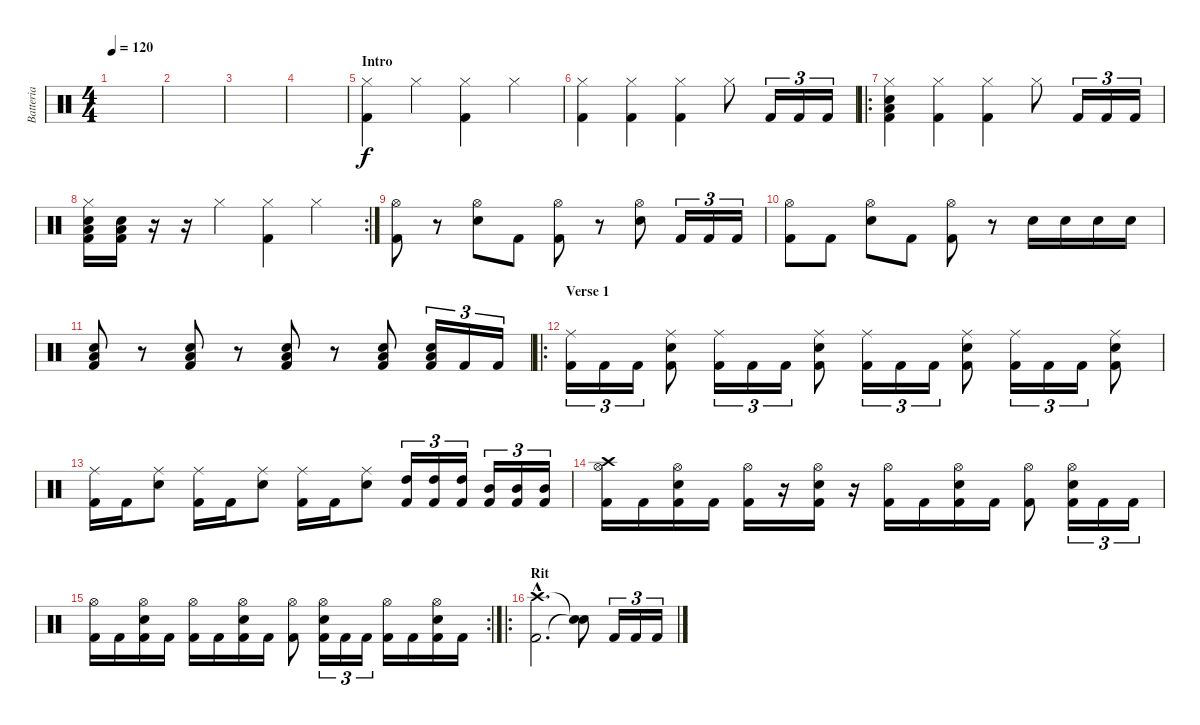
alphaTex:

\track ("Batteria" "Batteria") {instrument percussion}
\staff {score}
\articulation defaults
\ts (4 4)
\tempo 120
\clef neutral
\ks c
|
|
|
|
\section ("" "Intro")
("Hi-Hat (closed)" "Kick (hit) 2").4 "Hi-Hat (closed)".4 ("Hi-Hat (closed)" "Kick (hit) 2").4 "Hi-Hat (closed)".4 |
("Hi-Hat (closed)" "Kick (hit) 2").4 ("Hi-Hat (closed)" "Kick (hit) 2").4 ("Hi-Hat (closed)" "Kick (hit) 2").4 "Hi-Hat (closed)".8 "Kick (hit) 2".16{tu (3 2)} "Kick (hit) 2".16{tu (3 2)} "Kick (hit) 2".16{tu (3 2)} |
\ro
("Hi-Hat (closed)" "Low Floor Tom (hit)" "Snare (hit) 2" "Kick (hit) 2").4 ("Hi-Hat (closed)" "Kick (hit) 2").4 ("Hi-Hat (closed)" "Kick (hit) 2").4 "Hi-Hat (closed)".8 "Kick (hit) 2".16{tu (3 2)} "Kick (hit) 2".16{tu (3 2)} "Kick (hit) 2".16{tu (3 2)} |
\rc 2
("Hi-Hat (closed)" "Low Floor Tom (hit)" "Snare (hit) 2" "Kick (hit) 2").16 ("Low Floor Tom (hit)" "Snare (hit) 2" "Kick (hit) 2").16 r.16 r.16 "Hi-Hat (closed)".4 ("Hi-Hat (closed)" "Kick (hit) 2").4 "Hi-Hat (closed)".4 |
("Hi-Hat (open)" "Kick (hit) 2").8 r.8 ("Hi-Hat (open)" "Snare (hit) 2").8 "Kick (hit) 2".8 ("Hi-Hat (open)" "Kick (hit) 2").8 r.8 ("Hi-Hat (open)" "Snare (hit) 2").8 "Kick (hit) 2".16{tu (3 2)} "Kick (hit) 2".16{tu (3 2)} "Kick (hit) 2".16{tu (3 2)} |
("Hi-Hat (open)" "Kick (hit) 2").8 "Kick (hit) 2".8 ("Hi-Hat (open)" "Snare (hit) 2").8 "Kick (hit) 2".8 ("Hi-Hat (open)" "Kick (hit) 2").8 r.8 "Snare (hit) 2".16 "Snare (hit) 2".16 "Snare (hit) 2".16 "Snare (hit) 2".16 |
("Low Floor Tom (hit)" "Snare (hit) 2" "Kick (hit) 2").8 r.8 ("Low Floor Tom (hit)" "Snare (hit) 2" "Kick (hit) 2").8 r.8 ("Low Floor Tom (hit)" "Snare (hit) 2" "Kick (hit) 2").8 r.8 ("Low Floor Tom (hit)" "Snare (hit) 2" "Kick (hit) 2").8 ("Low Floor Tom (hit)" "Snare (hit) 2" "Kick (hit) 2").16{tu (3 2)} "Kick (hit) 2".16{tu (3 2)} "Kick (hit) 2".16{tu (3 2)} |
\ro
\section ("" "Verse 1")
("Ride (middle)" "Kick (hit) 2").16{tu (3 2)} "Kick (hit) 2".16{tu (3 2)} "Kick (hit) 2".16{tu (3 2)} ("Ride (middle)" "Snare (hit) 2" "Kick (hit) 2").8 ("Ride (middle)" "Kick (hit) 2").16{tu (3 2)} "Kick (hit) 2".16{tu (3 2)} "Kick (hit) 2".16{tu (3 2)} ("Ride (middle)" "Snare (hit) 2" "Kick (hit) 2").8 ("Ride (middle)" "Kick (hit) 2").16{tu (3 2)} "Kick (hit) 2".16{tu (3 2)} "Kick (hit) 2".16{tu (3 2)} ("Ride (middle)" "Snare (hit) 2" "Kick (hit) 2").8 ("Ride (middle)" "Kick (hit) 2").16{tu (3 2)} "Kick (hit) 2".16{tu (3 2)} "Kick (hit) 2".16{tu (3 2)} ("Ride (middle)" "Snare (hit) 2" "Kick (hit) 2").8 |
("Ride (middle)" "Kick (hit) 2").16 "Kick (hit) 2".16 ("Ride (middle)" "Snare (hit) 2").8 ("Ride (middle)" "Kick (hit) 2").16 "Kick (hit) 2".16 ("Ride (middle)" "Snare (hit) 2").8 ("Ride (middle)" "Kick (hit) 2").16 "Kick (hit) 2".16 ("Ride (middle)" "Snare (hit) 2").8 ("High Tom (hit)" "Kick (hit) 2").16{tu (3 2)} ("High Tom (hit)" "Kick (hit) 2").16{tu (3 2)} ("High Tom (hit)" "Kick (hit) 2").16{tu (3 2)} ("Mid Tom (hit)" "Kick (hit) 2").16{tu (3 2)} ("Mid Tom (hit)" "Kick (hit) 2").16{tu (3 2)} ("Mid Tom (hit)" "Kick (hit) 2").16{tu (3 2)} |
("Hi-Hat (open)" "Crash high (hit)" "Kick (hit) 2").16 "Kick (hit) 2".16 ("Hi-Hat (open)" "Snare (hit) 2" "Kick (hit) 2").16 "Kick (hit) 2".16 ("Hi-Hat (open)" "Kick (hit) 2").16 r.16 ("Hi-Hat (open)" "Snare (hit) 2" "Kick (hit) 2").16 r.16 ("Hi-Hat (open)" "Kick (hit) 2").16 "Kick (hit) 2".16 ("Hi-Hat (open)" "Snare (hit) 2" "Kick (hit) 2").16 "Kick (hit) 2".16 ("Hi-Hat (open)" "Kick (hit) 2").8 ("Hi-Hat (open)" "Snare (hit) 2" "Kick (hit) 2").16{tu (3 2)} "Kick (hit) 2".16{tu (3 2)} "Kick (hit) 2".16{tu (3 2)} |
\rc 2
("Hi-Hat (open)" "Kick (hit) 2").16 "Kick (hit) 2".16 ("Hi-Hat (open)" "Snare (hit) 2" "Kick (hit) 2").16 "Kick (hit) 2".16 ("Hi-Hat (open)" "Kick (hit) 2").16 "Kick (hit) 2".16 ("Hi-Hat (open)" "Snare (hit) 2" "Kick (hit) 2").16 "Kick (hit) 2".16 ("Hi-Hat (open)" "Kick (hit) 2").8 ("Hi-Hat (open)" "Snare (hit) 2" "Kick (hit) 2").16{tu (3 2)} "Kick (hit) 2".16{tu (3 2)} "Kick (hit) 2".16{tu (3 2)} ("Hi-Hat (open)" "Kick (hit) 2").16 "Kick (hit) 2".16 ("Hi-Hat (open)" "Snare (hit) 2" "Kick (hit) 2").16 "Kick (hit) 2".16 |
\ro
\section ("" "Rit")
("Crash high (hit)"{hac} "Kick (hit) 2"{hac}).2{d} ("Snare (hit)"{t} "Snare (hit)"{t}).8 "Kick (hit) 2".16{tu (3 2)} "Kick (hit) 2".16{tu (3 2)} "Kick (hit) 2".16{tu (3 2)}
